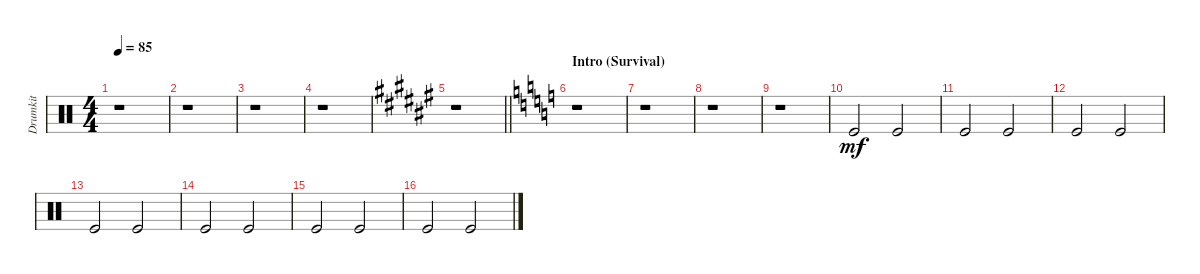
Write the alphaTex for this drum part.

\track ("Drumkit" "Drumkit") {instrument percussion}
\staff {score}
\articulation defaults
\ts (4 4)
\tempo 85
\clef neutral
\ks c
r.1{dy f} |
r.1 |
r.1 |
r.1 |
\barLineRight lightlight
\ks f#
r.1 |
\section ("" "Intro (Survival)")
\ks c
r.1 |
r.1 |
r.1 |
r.1 |
"Kick (hit)".2{dy mf} "Kick (hit)".2 |
"Kick (hit)".2 "Kick (hit)".2 |
"Kick (hit)".2 "Kick (hit)".2 |
"Kick (hit)".2 "Kick (hit)".2 |
"Kick (hit)".2 "Kick (hit)".2 |
"Kick (hit)".2 "Kick (hit)".2 |
"Kick (hit)".2 "Kick (hit)".2
